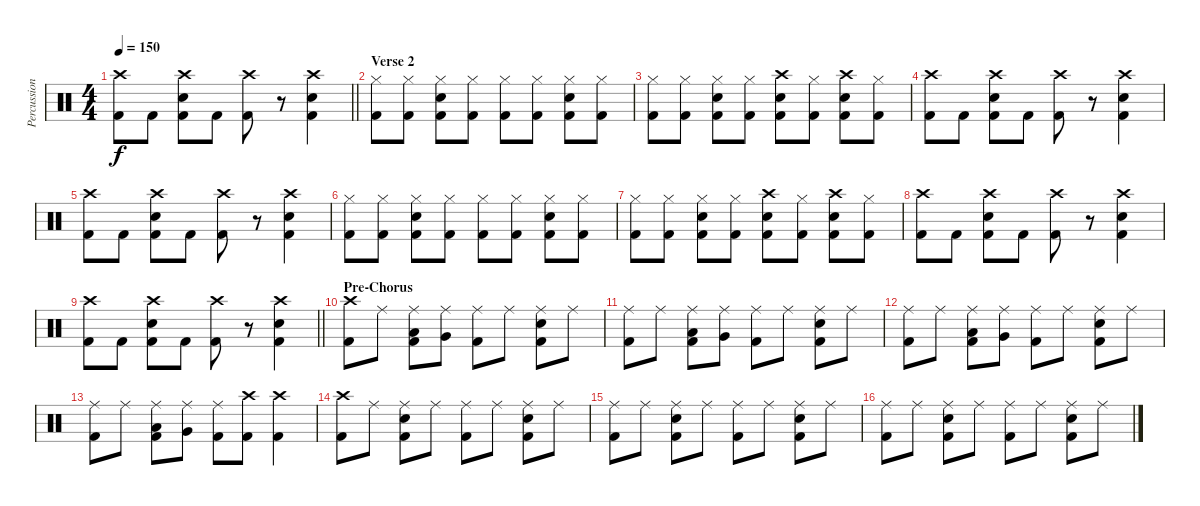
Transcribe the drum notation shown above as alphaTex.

\track ("Percussion" "Percussion") {instrument percussion}
\staff {score}
\articulation defaults
\ts (4 4)
\tempo 150
\clef neutral
\barLineRight lightlight
\ks c
("Crash high (hit)" "Kick (hit) 2").8{dy f} "Kick (hit) 2".8 ("Crash high (hit)" "Electric Snare (hit)" "Kick (hit) 2").8 "Kick (hit) 2".8 ("Crash high (hit)" "Kick (hit) 2").8 r.8 ("Crash high (hit)" "Electric Snare (hit)" "Kick (hit) 2").4 |
\section ("" "Verse 2")
("Hi-Hat (closed)" "Kick (hit) 2").8 ("Hi-Hat (closed)" "Kick (hit) 2").8 ("Hi-Hat (closed)" "Electric Snare (hit)" "Kick (hit) 2").8 ("Hi-Hat (closed)" "Kick (hit) 2").8 ("Hi-Hat (closed)" "Kick (hit) 2").8 ("Hi-Hat (closed)" "Kick (hit) 2").8 ("Hi-Hat (closed)" "Electric Snare (hit)" "Kick (hit) 2").8 ("Hi-Hat (closed)" "Kick (hit) 2").8 |
("Hi-Hat (closed)" "Kick (hit) 2").8 ("Hi-Hat (closed)" "Kick (hit) 2").8 ("Hi-Hat (closed)" "Electric Snare (hit)" "Kick (hit) 2").8 ("Hi-Hat (closed)" "Kick (hit) 2").8 ("Crash high (hit)" "Electric Snare (hit)" "Kick (hit) 2").8 ("Hi-Hat (closed)" "Kick (hit) 2").8 ("Crash high (hit)" "Electric Snare (hit)" "Kick (hit) 2").8 ("Hi-Hat (closed)" "Kick (hit) 2").8 |
("Crash high (hit)" "Kick (hit) 2").8 "Kick (hit) 2".8 ("Crash high (hit)" "Electric Snare (hit)" "Kick (hit) 2").8 "Kick (hit) 2".8 ("Crash high (hit)" "Kick (hit) 2").8 r.8 ("Crash high (hit)" "Electric Snare (hit)" "Kick (hit) 2").4 |
("Crash high (hit)" "Kick (hit) 2").8 "Kick (hit) 2".8 ("Crash high (hit)" "Electric Snare (hit)" "Kick (hit) 2").8 "Kick (hit) 2".8 ("Crash high (hit)" "Kick (hit) 2").8 r.8 ("Crash high (hit)" "Electric Snare (hit)" "Kick (hit) 2").4 |
("Hi-Hat (closed)" "Kick (hit) 2").8 ("Hi-Hat (closed)" "Kick (hit) 2").8 ("Hi-Hat (closed)" "Electric Snare (hit)" "Kick (hit) 2").8 ("Hi-Hat (closed)" "Kick (hit) 2").8 ("Hi-Hat (closed)" "Kick (hit) 2").8 ("Hi-Hat (closed)" "Kick (hit) 2").8 ("Hi-Hat (closed)" "Electric Snare (hit)" "Kick (hit) 2").8 ("Hi-Hat (closed)" "Kick (hit) 2").8 |
("Hi-Hat (closed)" "Kick (hit) 2").8 ("Hi-Hat (closed)" "Kick (hit) 2").8 ("Hi-Hat (closed)" "Electric Snare (hit)" "Kick (hit) 2").8 ("Hi-Hat (closed)" "Kick (hit) 2").8 ("Crash high (hit)" "Electric Snare (hit)" "Kick (hit) 2").8 ("Hi-Hat (closed)" "Kick (hit) 2").8 ("Crash high (hit)" "Electric Snare (hit)" "Kick (hit) 2").8 ("Hi-Hat (closed)" "Kick (hit) 2").8 |
("Crash high (hit)" "Kick (hit) 2").8 "Kick (hit) 2".8 ("Crash high (hit)" "Electric Snare (hit)" "Kick (hit) 2").8 "Kick (hit) 2".8 ("Crash high (hit)" "Kick (hit) 2").8 r.8 ("Crash high (hit)" "Electric Snare (hit)" "Kick (hit) 2").4 |
\barLineRight lightlight
("Crash high (hit)" "Kick (hit) 2").8 "Kick (hit) 2".8 ("Crash high (hit)" "Electric Snare (hit)" "Kick (hit) 2").8 "Kick (hit) 2".8 ("Crash high (hit)" "Kick (hit) 2").8 r.8 ("Crash high (hit)" "Electric Snare (hit)" "Kick (hit) 2").4 |
\section ("" "Pre-Chorus")
("Crash high (hit)" "Kick (hit) 2").8 "Ride (middle)".8 ("Ride (middle)" "Low Tom (hit)" "Kick (hit) 2").8 ("Ride (middle)" "Very Low Tom (hit)").8 ("Ride (middle)" "Kick (hit) 2").8 "Ride (middle)".8 ("Ride (middle)" "Electric Snare (hit)" "Kick (hit) 2").8 "Ride (middle)".8 |
("Ride (middle)" "Kick (hit) 2").8 "Ride (middle)".8 ("Ride (middle)" "Low Tom (hit)" "Kick (hit) 2").8 ("Ride (middle)" "Very Low Tom (hit)").8 ("Ride (middle)" "Kick (hit) 2").8 "Ride (middle)".8 ("Ride (middle)" "Electric Snare (hit)" "Kick (hit) 2").8 "Ride (middle)".8 |
("Ride (middle)" "Kick (hit) 2").8 "Ride (middle)".8 ("Ride (middle)" "Low Tom (hit)" "Kick (hit) 2").8 ("Ride (middle)" "Very Low Tom (hit)").8 ("Ride (middle)" "Kick (hit) 2").8 "Ride (middle)".8 ("Ride (middle)" "Electric Snare (hit)" "Kick (hit) 2").8 "Ride (middle)".8 |
("Ride (middle)" "Kick (hit) 2").8 "Ride (middle)".8 ("Ride (middle)" "Low Tom (hit)" "Kick (hit) 2").8 ("Ride (middle)" "Very Low Tom (hit)").8 ("Ride (middle)" "Kick (hit) 2").8 ("Crash high (hit)" "Kick (hit) 2").8 ("Crash high (hit)" "Kick (hit) 2").4 |
("Crash high (hit)" "Kick (hit) 2").8 "Ride (middle)".8 ("Ride (middle)" "Electric Snare (hit)" "Kick (hit) 2").8 "Ride (middle)".8 ("Ride (middle)" "Kick (hit) 2").8 "Ride (middle)".8 ("Ride (middle)" "Electric Snare (hit)" "Kick (hit) 2").8 "Ride (middle)".8 |
("Ride (middle)" "Kick (hit) 2").8 "Ride (middle)".8 ("Ride (middle)" "Electric Snare (hit)" "Kick (hit) 2").8 "Ride (middle)".8 ("Ride (middle)" "Kick (hit) 2").8 "Ride (middle)".8 ("Ride (middle)" "Electric Snare (hit)" "Kick (hit) 2").8 "Ride (middle)".8 |
("Ride (middle)" "Kick (hit) 2").8 "Ride (middle)".8 ("Ride (middle)" "Electric Snare (hit)" "Kick (hit) 2").8 "Ride (middle)".8 ("Ride (middle)" "Kick (hit) 2").8 "Ride (middle)".8 ("Ride (middle)" "Electric Snare (hit)" "Kick (hit) 2").8 "Ride (middle)".8
